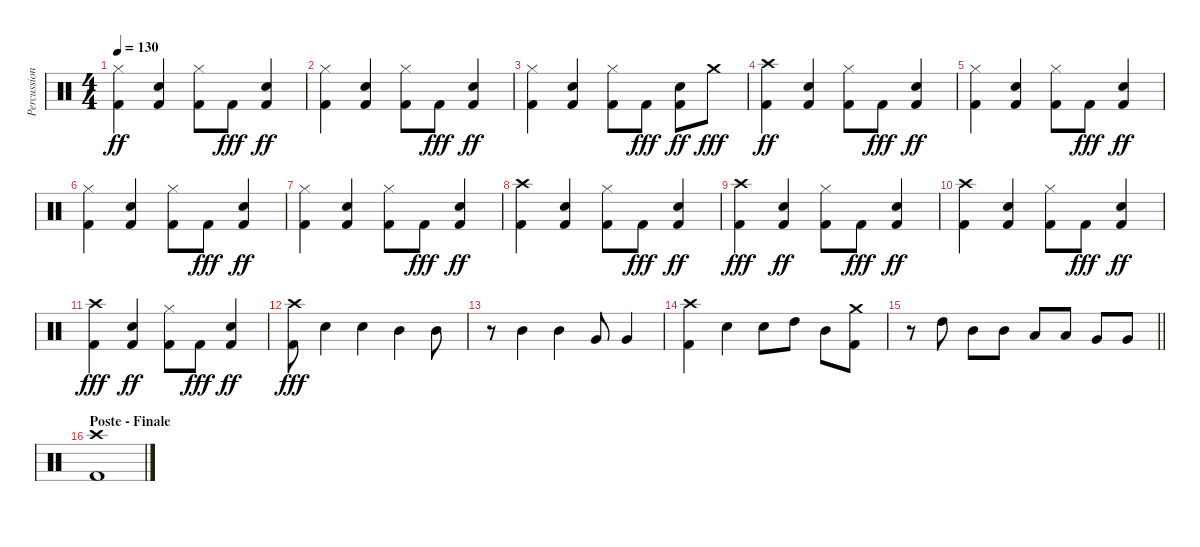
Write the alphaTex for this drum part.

\track ("Percussions" "Percussion") {instrument percussion}
\staff {score}
\articulation defaults
\ts (4 4)
\tempo 130
\clef neutral
\ks c
("Kick (hit) 2" "Hi-Hat (closed)").4{dy ff} ("Kick (hit) 2" "Electric Snare (hit)").4 ("Kick (hit) 2" "Hi-Hat (closed)").8 "Kick (hit) 2".8{dy fff} ("Kick (hit) 2" "Electric Snare (hit)").4{dy ff} |
("Kick (hit) 2" "Hi-Hat (closed)").4 ("Kick (hit) 2" "Electric Snare (hit)").4 ("Kick (hit) 2" "Hi-Hat (closed)").8 "Kick (hit) 2".8{dy fff} ("Kick (hit) 2" "Electric Snare (hit)").4{dy ff} |
("Kick (hit) 2" "Hi-Hat (closed)").4 ("Kick (hit) 2" "Electric Snare (hit)").4 ("Kick (hit) 2" "Hi-Hat (closed)").8 "Kick (hit) 2".8{dy fff} ("Kick (hit) 2" "Electric Snare (hit)").8{dy ff} "Crash medium (hit)".8{dy fff} |
("Kick (hit) 2" "Crash high (hit)").4{dy ff} ("Kick (hit) 2" "Electric Snare (hit)").4 ("Kick (hit) 2" "Hi-Hat (closed)").8 "Kick (hit) 2".8{dy fff} ("Kick (hit) 2" "Electric Snare (hit)").4{dy ff} |
("Kick (hit) 2" "Hi-Hat (closed)").4 ("Kick (hit) 2" "Electric Snare (hit)").4 ("Kick (hit) 2" "Hi-Hat (closed)").8 "Kick (hit) 2".8{dy fff} ("Kick (hit) 2" "Electric Snare (hit)").4{dy ff} |
("Kick (hit) 2" "Hi-Hat (closed)").4 ("Kick (hit) 2" "Electric Snare (hit)").4 ("Kick (hit) 2" "Hi-Hat (closed)").8 "Kick (hit) 2".8{dy fff} ("Kick (hit) 2" "Electric Snare (hit)").4{dy ff} |
("Kick (hit) 2" "Hi-Hat (closed)").4 ("Kick (hit) 2" "Electric Snare (hit)").4 ("Kick (hit) 2" "Hi-Hat (closed)").8 "Kick (hit) 2".8{dy fff} ("Kick (hit) 2" "Electric Snare (hit)").4{dy ff} |
("Kick (hit) 2" "Crash high (hit)").4 ("Kick (hit) 2" "Electric Snare (hit)").4 ("Kick (hit) 2" "Hi-Hat (closed)").8 "Kick (hit) 2".8{dy fff} ("Kick (hit) 2" "Electric Snare (hit)").4{dy ff} |
("Kick (hit) 2" "Crash high (hit)").4{dy fff} ("Kick (hit) 2" "Electric Snare (hit)").4{dy ff} ("Kick (hit) 2" "Hi-Hat (closed)").8 "Kick (hit) 2".8{dy fff} ("Kick (hit) 2" "Electric Snare (hit)").4{dy ff} |
("Kick (hit) 2" "Crash high (hit)").4 ("Kick (hit) 2" "Electric Snare (hit)").4 ("Kick (hit) 2" "Hi-Hat (closed)").8 "Kick (hit) 2".8{dy fff} ("Kick (hit) 2" "Electric Snare (hit)").4{dy ff} |
("Kick (hit) 2" "Crash high (hit)").4{dy fff} ("Kick (hit) 2" "Electric Snare (hit)").4{dy ff} ("Kick (hit) 2" "Hi-Hat (closed)").8 "Kick (hit) 2".8{dy fff} ("Kick (hit) 2" "Electric Snare (hit)").4{dy ff} |
("Crash high (hit)" "Kick (hit) 2").8{dy fff} "Electric Snare (hit)".4 "Electric Snare (hit)".4 "Mid Tom (hit)".4 "Mid Tom (hit)".8 |
r.8 "Mid Tom (hit)".4 "Mid Tom (hit)".4 "Very Low Tom (hit)".8 "Very Low Tom (hit)".4 |
("Kick (hit) 2" "Crash high (hit)").4 "Electric Snare (hit)".4 "Electric Snare (hit)".8 "High Tom (hit)".8 "Mid Tom (hit)".8 ("Kick (hit) 2" "Crash medium (hit)").8 |
\barLineRight lightlight
r.8 "High Tom (hit)".8 "Mid Tom (hit)".8 "Mid Tom (hit)".8 "Low Tom (hit)".8 "Low Tom (hit)".8 "Very Low Tom (hit)".8 "Very Low Tom (hit)".8 |
\section ("" "Poste - Finale ")
("Kick (hit) 2" "Crash high (hit)").1
